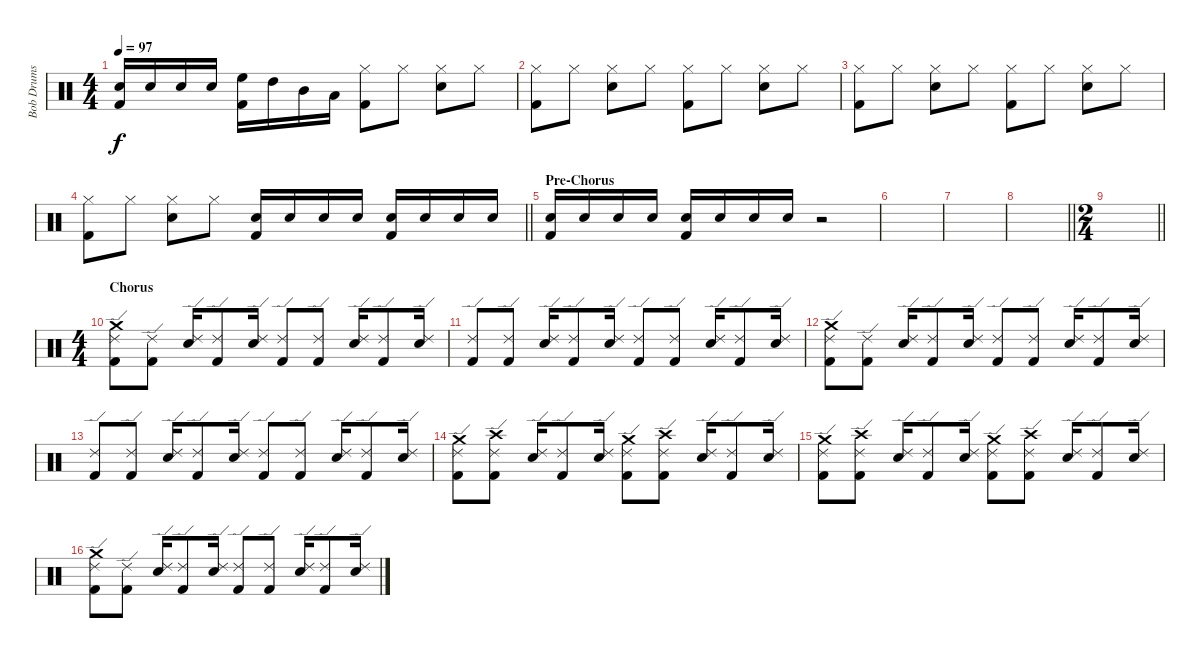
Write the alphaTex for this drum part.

\track ("Bob Drums" "Bob Drums") {instrument percussion}
\staff {score}
\articulation defaults
\ts (4 4)
\tempo 97
\clef neutral
\ks c
("Snare (hit) 2" "Kick (hit) 2").16{dy f} "Snare (hit) 2".16 "Snare (hit) 2".16 "Snare (hit) 2".16 ("High Floor Tom (hit)" "Kick (hit) 2").16 "High Tom (hit)".16 "Mid Tom (hit)".16 "Low Tom (hit)".16 ("Hi-Hat (closed)" "Kick (hit) 2").8 "Hi-Hat (closed)".8 ("Hi-Hat (closed)" "Snare (hit) 2").8 "Hi-Hat (closed)".8 |
("Hi-Hat (closed)" "Kick (hit) 2").8 "Hi-Hat (closed)".8 ("Hi-Hat (closed)" "Snare (hit) 2").8 "Hi-Hat (closed)".8 ("Hi-Hat (closed)" "Kick (hit) 2").8 "Hi-Hat (closed)".8 ("Hi-Hat (closed)" "Snare (hit) 2").8 "Hi-Hat (closed)".8 |
("Hi-Hat (closed)" "Kick (hit) 2").8 "Hi-Hat (closed)".8 ("Hi-Hat (closed)" "Snare (hit) 2").8 "Hi-Hat (closed)".8 ("Hi-Hat (closed)" "Kick (hit) 2").8 "Hi-Hat (closed)".8 ("Hi-Hat (closed)" "Snare (hit) 2").8 "Hi-Hat (closed)".8 |
\barLineRight lightlight
("Hi-Hat (closed)" "Kick (hit) 2").8 "Hi-Hat (closed)".8 ("Hi-Hat (closed)" "Snare (hit) 2").8 "Hi-Hat (closed)".8 ("Snare (hit) 2" "Kick (hit) 2").16 "Snare (hit) 2".16 "Snare (hit) 2".16 "Snare (hit) 2".16 ("Snare (hit) 2" "Kick (hit) 2").16 "Snare (hit) 2".16 "Snare (hit) 2".16 "Snare (hit) 2".16 |
\section ("" "Pre-Chorus")
("Snare (hit) 2" "Kick (hit) 2").16 "Snare (hit) 2".16 "Snare (hit) 2".16 "Snare (hit) 2".16 ("Snare (hit) 2" "Kick (hit) 2").16 "Snare (hit) 2".16 "Snare (hit) 2".16 "Snare (hit) 2".16 r.2 |
|
|
\barLineRight lightlight
|
\ts (2 4)
\barLineRight lightlight
|
\ts (4 4)
\section ("" "Chorus")
("Ride (edge) 2" "Crash medium (hit)" "Kick (hit) 2").8 ("Ride (edge) 2" "Kick (hit) 2").8 ("Ride (edge) 2" "Snare (hit) 2").16 ("Ride (edge) 2" "Kick (hit) 2").8 ("Ride (edge) 2" "Snare (hit) 2").16 ("Ride (edge) 2" "Kick (hit) 2").8 ("Ride (edge) 2" "Kick (hit) 2").8 ("Ride (edge) 2" "Snare (hit) 2").16 ("Ride (edge) 2" "Kick (hit) 2").8 ("Ride (edge) 2" "Snare (hit) 2").16 |
("Ride (edge) 2" "Kick (hit) 2").8 ("Ride (edge) 2" "Kick (hit) 2").8 ("Ride (edge) 2" "Snare (hit) 2").16 ("Ride (edge) 2" "Kick (hit) 2").8 ("Ride (edge) 2" "Snare (hit) 2").16 ("Ride (edge) 2" "Kick (hit) 2").8 ("Ride (edge) 2" "Kick (hit) 2").8 ("Ride (edge) 2" "Snare (hit) 2").16 ("Ride (edge) 2" "Kick (hit) 2").8 ("Ride (edge) 2" "Snare (hit) 2").16 |
("Ride (edge) 2" "Crash medium (hit)" "Kick (hit) 2").8 ("Ride (edge) 2" "Kick (hit) 2").8 ("Ride (edge) 2" "Snare (hit) 2").16 ("Ride (edge) 2" "Kick (hit) 2").8 ("Ride (edge) 2" "Snare (hit) 2").16 ("Ride (edge) 2" "Kick (hit) 2").8 ("Ride (edge) 2" "Kick (hit) 2").8 ("Ride (edge) 2" "Snare (hit) 2").16 ("Ride (edge) 2" "Kick (hit) 2").8 ("Ride (edge) 2" "Snare (hit) 2").16 |
("Ride (edge) 2" "Kick (hit) 2").8 ("Ride (edge) 2" "Kick (hit) 2").8 ("Ride (edge) 2" "Snare (hit) 2").16 ("Ride (edge) 2" "Kick (hit) 2").8 ("Ride (edge) 2" "Snare (hit) 2").16 ("Ride (edge) 2" "Kick (hit) 2").8 ("Ride (edge) 2" "Kick (hit) 2").8 ("Ride (edge) 2" "Snare (hit) 2").16 ("Ride (edge) 2" "Kick (hit) 2").8 ("Ride (edge) 2" "Snare (hit) 2").16 |
("Ride (edge) 2" "Crash medium (hit)" "Kick (hit) 2").8 ("Ride (edge) 2" "Crash high (hit)" "Kick (hit) 2").8 ("Ride (edge) 2" "Snare (hit) 2").16 ("Ride (edge) 2" "Kick (hit) 2").8 ("Ride (edge) 2" "Snare (hit) 2").16 ("Ride (edge) 2" "Crash medium (hit)" "Kick (hit) 2").8 ("Ride (edge) 2" "Crash high (hit)" "Kick (hit) 2").8 ("Ride (edge) 2" "Snare (hit) 2").16 ("Ride (edge) 2" "Kick (hit) 2").8 ("Ride (edge) 2" "Snare (hit) 2").16 |
("Ride (edge) 2" "Crash medium (hit)" "Kick (hit) 2").8 ("Ride (edge) 2" "Crash high (hit)" "Kick (hit) 2").8 ("Ride (edge) 2" "Snare (hit) 2").16 ("Ride (edge) 2" "Kick (hit) 2").8 ("Ride (edge) 2" "Snare (hit) 2").16 ("Ride (edge) 2" "Crash medium (hit)" "Kick (hit) 2").8 ("Ride (edge) 2" "Crash high (hit)" "Kick (hit) 2").8 ("Ride (edge) 2" "Snare (hit) 2").16 ("Ride (edge) 2" "Kick (hit) 2").8 ("Ride (edge) 2" "Snare (hit) 2").16 |
("Ride (edge) 2" "Crash medium (hit)" "Kick (hit) 2").8 ("Ride (edge) 2" "Kick (hit) 2").8 ("Ride (edge) 2" "Snare (hit) 2").16 ("Ride (edge) 2" "Kick (hit) 2").8 ("Ride (edge) 2" "Snare (hit) 2").16 ("Ride (edge) 2" "Kick (hit) 2").8 ("Ride (edge) 2" "Kick (hit) 2").8 ("Ride (edge) 2" "Snare (hit) 2").16 ("Ride (edge) 2" "Kick (hit) 2").8 ("Ride (edge) 2" "Snare (hit) 2").16
